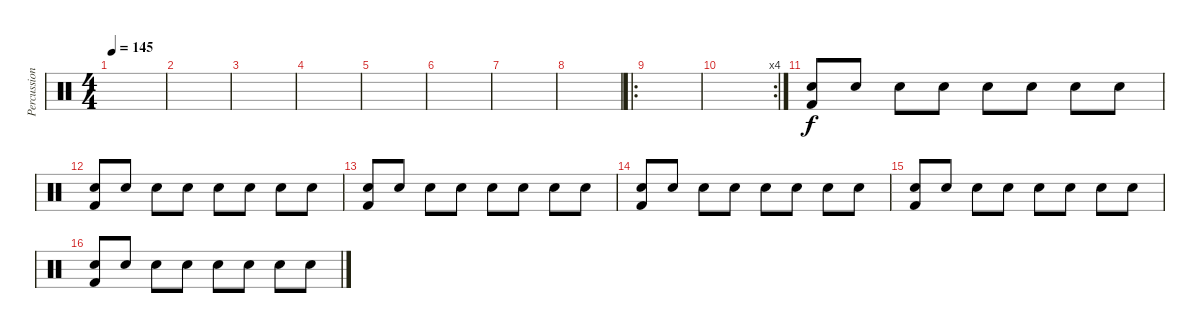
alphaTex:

\track ("Percussion" "Percussion") {instrument percussion}
\staff {score}
\articulation defaults
\ts (4 4)
\tempo 145
\clef neutral
\ks c
|
|
|
|
|
|
|
|
\ro
|
\rc 4
|
("Electric Snare (hit)" "Kick (hit) 2").8 "Electric Snare (hit)".8 "Electric Snare (hit)".8 "Electric Snare (hit)".8 "Electric Snare (hit)".8 "Electric Snare (hit)".8 "Electric Snare (hit)".8 "Electric Snare (hit)".8 |
("Electric Snare (hit)" "Kick (hit) 2").8 "Electric Snare (hit)".8 "Electric Snare (hit)".8 "Electric Snare (hit)".8 "Electric Snare (hit)".8 "Electric Snare (hit)".8 "Electric Snare (hit)".8 "Electric Snare (hit)".8 |
("Electric Snare (hit)" "Kick (hit) 2").8 "Electric Snare (hit)".8 "Electric Snare (hit)".8 "Electric Snare (hit)".8 "Electric Snare (hit)".8 "Electric Snare (hit)".8 "Electric Snare (hit)".8 "Electric Snare (hit)".8 |
("Electric Snare (hit)" "Kick (hit) 2").8 "Electric Snare (hit)".8 "Electric Snare (hit)".8 "Electric Snare (hit)".8 "Electric Snare (hit)".8 "Electric Snare (hit)".8 "Electric Snare (hit)".8 "Electric Snare (hit)".8 |
("Electric Snare (hit)" "Kick (hit) 2").8 "Electric Snare (hit)".8 "Electric Snare (hit)".8 "Electric Snare (hit)".8 "Electric Snare (hit)".8 "Electric Snare (hit)".8 "Electric Snare (hit)".8 "Electric Snare (hit)".8 |
("Electric Snare (hit)" "Kick (hit) 2").8 "Electric Snare (hit)".8 "Electric Snare (hit)".8 "Electric Snare (hit)".8 "Electric Snare (hit)".8 "Electric Snare (hit)".8 "Electric Snare (hit)".8 "Electric Snare (hit)".8
